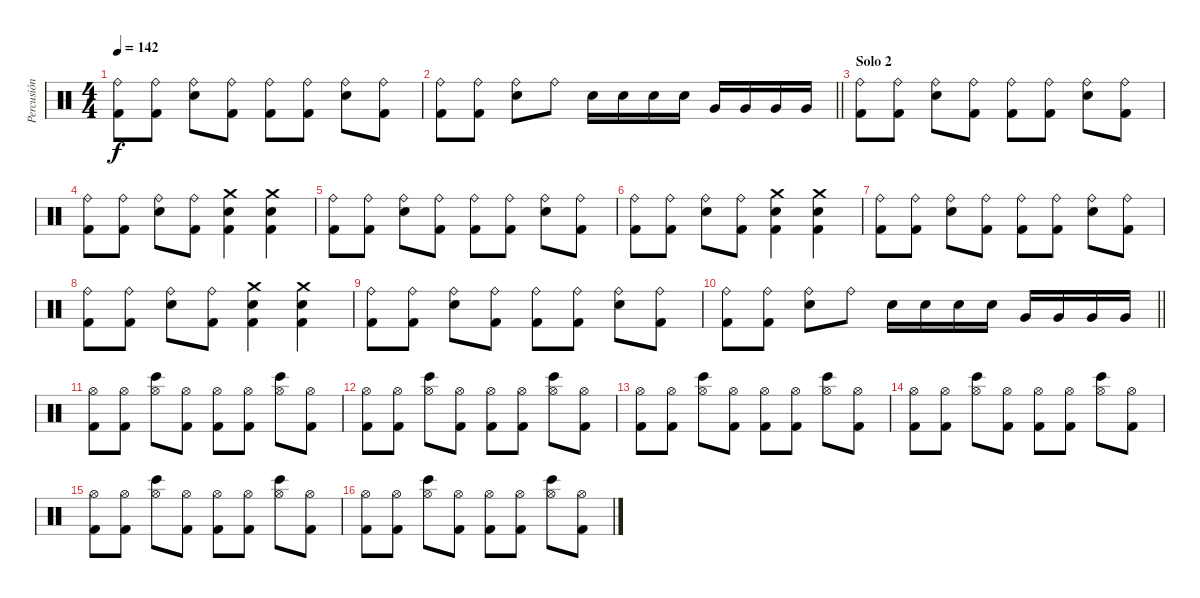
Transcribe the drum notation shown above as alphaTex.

\track ("Percusión" "Percusión") {instrument percussion}
\staff {score}
\articulation defaults
\ts (4 4)
\tempo 142
\clef neutral
\ks c
("Ride (bell)" "Kick (hit) 2").8{dy f} ("Ride (bell)" "Kick (hit) 2").8 ("Ride (bell)" "Electric Snare (hit)").8 ("Ride (bell)" "Kick (hit) 2").8 ("Ride (bell)" "Kick (hit) 2").8 ("Ride (bell)" "Kick (hit) 2").8 ("Ride (bell)" "Electric Snare (hit)").8 ("Ride (bell)" "Kick (hit) 2").8 |
\barLineRight lightlight
("Ride (bell)" "Kick (hit) 2").8 ("Ride (bell)" "Kick (hit) 2").8 ("Ride (bell)" "Electric Snare (hit)").8 "Ride (bell)".8 "Electric Snare (hit)".16 "Electric Snare (hit)".16 "Electric Snare (hit)".16 "Electric Snare (hit)".16 "Very Low Tom (hit)".16 "Very Low Tom (hit)".16 "Very Low Tom (hit)".16 "Very Low Tom (hit)".16 |
\section ("" "Solo 2")
("Ride (bell)" "Kick (hit) 2").8 ("Ride (bell)" "Kick (hit) 2").8 ("Ride (bell)" "Electric Snare (hit)").8 ("Ride (bell)" "Kick (hit) 2").8 ("Ride (bell)" "Kick (hit) 2").8 ("Ride (bell)" "Kick (hit) 2").8 ("Ride (bell)" "Electric Snare (hit)").8 ("Ride (bell)" "Kick (hit) 2").8 |
("Ride (bell)" "Kick (hit) 2").8 ("Ride (bell)" "Kick (hit) 2").8 ("Ride (bell)" "Electric Snare (hit)").8 ("Ride (bell)" "Kick (hit) 2").8 ("Crash medium (hit)" "Electric Snare (hit)" "Kick (hit) 2").4 ("Crash medium (hit)" "Electric Snare (hit)" "Kick (hit) 2").4 |
("Ride (bell)" "Kick (hit) 2").8 ("Ride (bell)" "Kick (hit) 2").8 ("Ride (bell)" "Electric Snare (hit)").8 ("Ride (bell)" "Kick (hit) 2").8 ("Ride (bell)" "Kick (hit) 2").8 ("Ride (bell)" "Kick (hit) 2").8 ("Ride (bell)" "Electric Snare (hit)").8 ("Ride (bell)" "Kick (hit) 2").8 |
("Ride (bell)" "Kick (hit) 2").8 ("Ride (bell)" "Kick (hit) 2").8 ("Ride (bell)" "Electric Snare (hit)").8 ("Ride (bell)" "Kick (hit) 2").8 ("Crash medium (hit)" "Electric Snare (hit)" "Kick (hit) 2").4 ("Crash medium (hit)" "Electric Snare (hit)" "Kick (hit) 2").4 |
("Ride (bell)" "Kick (hit) 2").8 ("Ride (bell)" "Kick (hit) 2").8 ("Ride (bell)" "Electric Snare (hit)").8 ("Ride (bell)" "Kick (hit) 2").8 ("Ride (bell)" "Kick (hit) 2").8 ("Ride (bell)" "Kick (hit) 2").8 ("Ride (bell)" "Electric Snare (hit)").8 ("Ride (bell)" "Kick (hit) 2").8 |
("Ride (bell)" "Kick (hit) 2").8 ("Ride (bell)" "Kick (hit) 2").8 ("Ride (bell)" "Electric Snare (hit)").8 ("Ride (bell)" "Kick (hit) 2").8 ("Crash medium (hit)" "Electric Snare (hit)" "Kick (hit) 2").4 ("Crash medium (hit)" "Electric Snare (hit)" "Kick (hit) 2").4 |
("Ride (bell)" "Kick (hit) 2").8 ("Ride (bell)" "Kick (hit) 2").8 ("Ride (bell)" "Electric Snare (hit)").8 ("Ride (bell)" "Kick (hit) 2").8 ("Ride (bell)" "Kick (hit) 2").8 ("Ride (bell)" "Kick (hit) 2").8 ("Ride (bell)" "Electric Snare (hit)").8 ("Ride (bell)" "Kick (hit) 2").8 |
\barLineRight lightlight
("Ride (bell)" "Kick (hit) 2").8 ("Ride (bell)" "Kick (hit) 2").8 ("Ride (bell)" "Electric Snare (hit)").8 "Ride (bell)".8 "Electric Snare (hit)".16 "Electric Snare (hit)".16 "Electric Snare (hit)".16 "Electric Snare (hit)".16 "Very Low Tom (hit)".16 "Very Low Tom (hit)".16 "Very Low Tom (hit)".16 "Very Low Tom (hit)".16 |
("Hi-Hat (open)" "Kick (hit) 2").8 ("Hi-Hat (open)" "Kick (hit) 2").8 ("Hi-Hat (open)" "Bongo High (hit)").8 ("Hi-Hat (open)" "Kick (hit) 2").8 ("Hi-Hat (open)" "Kick (hit) 2").8 ("Hi-Hat (open)" "Kick (hit) 2").8 ("Hi-Hat (open)" "Bongo High (hit)").8 ("Hi-Hat (open)" "Kick (hit) 2").8 |
("Hi-Hat (open)" "Kick (hit) 2").8 ("Hi-Hat (open)" "Kick (hit) 2").8 ("Hi-Hat (open)" "Bongo High (hit)").8 ("Hi-Hat (open)" "Kick (hit) 2").8 ("Hi-Hat (open)" "Kick (hit) 2").8 ("Hi-Hat (open)" "Kick (hit) 2").8 ("Hi-Hat (open)" "Bongo High (hit)").8 ("Hi-Hat (open)" "Kick (hit) 2").8 |
("Hi-Hat (open)" "Kick (hit) 2").8 ("Hi-Hat (open)" "Kick (hit) 2").8 ("Hi-Hat (open)" "Bongo High (hit)").8 ("Hi-Hat (open)" "Kick (hit) 2").8 ("Hi-Hat (open)" "Kick (hit) 2").8 ("Hi-Hat (open)" "Kick (hit) 2").8 ("Hi-Hat (open)" "Bongo High (hit)").8 ("Hi-Hat (open)" "Kick (hit) 2").8 |
("Hi-Hat (open)" "Kick (hit) 2").8 ("Hi-Hat (open)" "Kick (hit) 2").8 ("Hi-Hat (open)" "Bongo High (hit)").8 ("Hi-Hat (open)" "Kick (hit) 2").8 ("Hi-Hat (open)" "Kick (hit) 2").8 ("Hi-Hat (open)" "Kick (hit) 2").8 ("Hi-Hat (open)" "Bongo High (hit)").8 ("Hi-Hat (open)" "Kick (hit) 2").8 |
("Hi-Hat (open)" "Kick (hit) 2").8 ("Hi-Hat (open)" "Kick (hit) 2").8 ("Hi-Hat (open)" "Bongo High (hit)").8 ("Hi-Hat (open)" "Kick (hit) 2").8 ("Hi-Hat (open)" "Kick (hit) 2").8 ("Hi-Hat (open)" "Kick (hit) 2").8 ("Hi-Hat (open)" "Bongo High (hit)").8 ("Hi-Hat (open)" "Kick (hit) 2").8 |
("Hi-Hat (open)" "Kick (hit) 2").8 ("Hi-Hat (open)" "Kick (hit) 2").8 ("Hi-Hat (open)" "Bongo High (hit)").8 ("Hi-Hat (open)" "Kick (hit) 2").8 ("Hi-Hat (open)" "Kick (hit) 2").8 ("Hi-Hat (open)" "Kick (hit) 2").8 ("Hi-Hat (open)" "Bongo High (hit)").8 ("Hi-Hat (open)" "Kick (hit) 2").8
